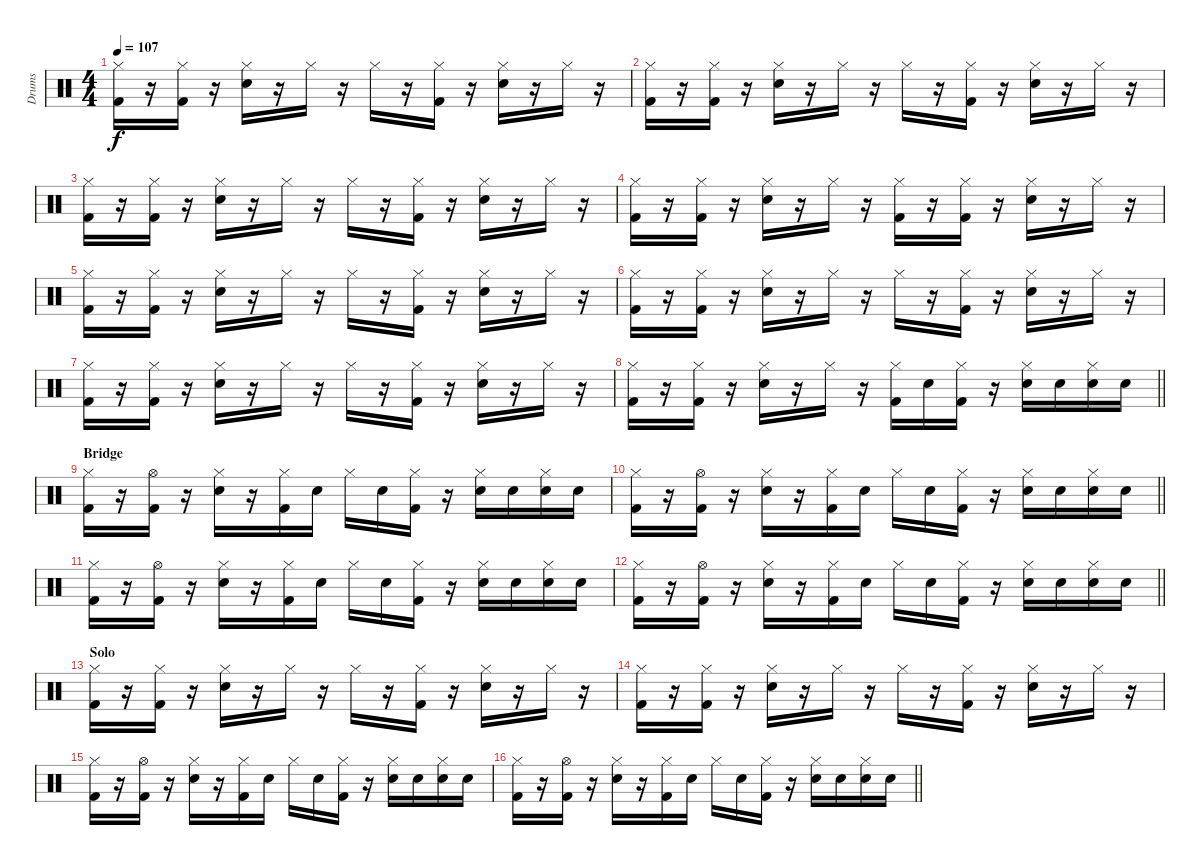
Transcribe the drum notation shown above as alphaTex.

\track ("Drums" "Drums") {instrument percussion}
\staff {score}
\articulation defaults
\ts (4 4)
\tempo 107
\clef neutral
\ks c
("Hi-Hat (closed)" "Kick (hit) 2").16{dy f} r.16 ("Hi-Hat (closed)" "Kick (hit) 2").16 r.16 ("Hi-Hat (closed)" "Electric Snare (hit)").16 r.16 "Hi-Hat (closed)".16 r.16 "Hi-Hat (closed)".16 r.16 ("Hi-Hat (closed)" "Kick (hit) 2").16 r.16 ("Hi-Hat (closed)" "Electric Snare (hit)").16 r.16 "Hi-Hat (closed)".16 r.16 |
("Hi-Hat (closed)" "Kick (hit) 2").16 r.16 ("Hi-Hat (closed)" "Kick (hit) 2").16 r.16 ("Hi-Hat (closed)" "Electric Snare (hit)").16 r.16 "Hi-Hat (closed)".16 r.16 "Hi-Hat (closed)".16 r.16 ("Hi-Hat (closed)" "Kick (hit) 2").16 r.16 ("Hi-Hat (closed)" "Electric Snare (hit)").16 r.16 "Hi-Hat (closed)".16 r.16 |
("Hi-Hat (closed)" "Kick (hit) 2").16 r.16 ("Hi-Hat (closed)" "Kick (hit) 2").16 r.16 ("Hi-Hat (closed)" "Electric Snare (hit)").16 r.16 "Hi-Hat (closed)".16 r.16 "Hi-Hat (closed)".16 r.16 ("Hi-Hat (closed)" "Kick (hit) 2").16 r.16 ("Hi-Hat (closed)" "Electric Snare (hit)").16 r.16 "Hi-Hat (closed)".16 r.16 |
("Hi-Hat (closed)" "Kick (hit) 2").16 r.16 ("Hi-Hat (closed)" "Kick (hit) 2").16 r.16 ("Hi-Hat (closed)" "Electric Snare (hit)").16 r.16 "Hi-Hat (closed)".16 r.16 ("Hi-Hat (closed)" "Kick (hit) 2").16 r.16 ("Hi-Hat (closed)" "Kick (hit) 2").16 r.16 ("Hi-Hat (closed)" "Electric Snare (hit)").16 r.16 "Hi-Hat (closed)".16 r.16 |
("Hi-Hat (closed)" "Kick (hit) 2").16 r.16 ("Hi-Hat (closed)" "Kick (hit) 2").16 r.16 ("Hi-Hat (closed)" "Electric Snare (hit)").16 r.16 "Hi-Hat (closed)".16 r.16 "Hi-Hat (closed)".16 r.16 ("Hi-Hat (closed)" "Kick (hit) 2").16 r.16 ("Hi-Hat (closed)" "Electric Snare (hit)").16 r.16 "Hi-Hat (closed)".16 r.16 |
("Hi-Hat (closed)" "Kick (hit) 2").16 r.16 ("Hi-Hat (closed)" "Kick (hit) 2").16 r.16 ("Hi-Hat (closed)" "Electric Snare (hit)").16 r.16 "Hi-Hat (closed)".16 r.16 "Hi-Hat (closed)".16 r.16 ("Hi-Hat (closed)" "Kick (hit) 2").16 r.16 ("Hi-Hat (closed)" "Electric Snare (hit)").16 r.16 "Hi-Hat (closed)".16 r.16 |
("Hi-Hat (closed)" "Kick (hit) 2").16 r.16 ("Hi-Hat (closed)" "Kick (hit) 2").16 r.16 ("Hi-Hat (closed)" "Electric Snare (hit)").16 r.16 "Hi-Hat (closed)".16 r.16 "Hi-Hat (closed)".16 r.16 ("Hi-Hat (closed)" "Kick (hit) 2").16 r.16 ("Hi-Hat (closed)" "Electric Snare (hit)").16 r.16 "Hi-Hat (closed)".16 r.16 |
\barLineRight lightlight
("Hi-Hat (closed)" "Kick (hit) 2").16 r.16 ("Hi-Hat (closed)" "Kick (hit) 2").16 r.16 ("Hi-Hat (closed)" "Electric Snare (hit)").16 r.16 "Hi-Hat (closed)".16 r.16 ("Hi-Hat (closed)" "Kick (hit) 2").16 "Electric Snare (hit)".16 ("Hi-Hat (closed)" "Kick (hit) 2").16 r.16 ("Hi-Hat (closed)" "Electric Snare (hit)").16 "Electric Snare (hit)".16 ("Hi-Hat (closed)" "Electric Snare (hit)").16 "Electric Snare (hit)".16 |
\section ("" "Bridge")
("Hi-Hat (closed)" "Kick (hit) 2").16 r.16 ("Hi-Hat (open)" "Kick (hit) 2").16 r.16 ("Hi-Hat (closed)" "Electric Snare (hit)").16 r.16 ("Hi-Hat (closed)" "Kick (hit) 2").16 "Electric Snare (hit)".16 "Hi-Hat (closed)".16 "Electric Snare (hit)".16 ("Hi-Hat (closed)" "Kick (hit) 2").16 r.16 ("Hi-Hat (closed)" "Electric Snare (hit)").16 "Electric Snare (hit)".16 ("Hi-Hat (closed)" "Electric Snare (hit)").16 "Electric Snare (hit)".16 |
\barLineRight lightlight
("Hi-Hat (closed)" "Kick (hit) 2").16 r.16 ("Hi-Hat (open)" "Kick (hit) 2").16 r.16 ("Hi-Hat (closed)" "Electric Snare (hit)").16 r.16 ("Hi-Hat (closed)" "Kick (hit) 2").16 "Electric Snare (hit)".16 "Hi-Hat (closed)".16 "Electric Snare (hit)".16 ("Hi-Hat (closed)" "Kick (hit) 2").16 r.16 ("Hi-Hat (closed)" "Electric Snare (hit)").16 "Electric Snare (hit)".16 ("Hi-Hat (closed)" "Electric Snare (hit)").16 "Electric Snare (hit)".16 |
("Hi-Hat (closed)" "Kick (hit) 2").16 r.16 ("Hi-Hat (open)" "Kick (hit) 2").16 r.16 ("Hi-Hat (closed)" "Electric Snare (hit)").16 r.16 ("Hi-Hat (closed)" "Kick (hit) 2").16 "Electric Snare (hit)".16 "Hi-Hat (closed)".16 "Electric Snare (hit)".16 ("Hi-Hat (closed)" "Kick (hit) 2").16 r.16 ("Hi-Hat (closed)" "Electric Snare (hit)").16 "Electric Snare (hit)".16 ("Hi-Hat (closed)" "Electric Snare (hit)").16 "Electric Snare (hit)".16 |
\barLineRight lightlight
("Hi-Hat (closed)" "Kick (hit) 2").16 r.16 ("Hi-Hat (open)" "Kick (hit) 2").16 r.16 ("Hi-Hat (closed)" "Electric Snare (hit)").16 r.16 ("Hi-Hat (closed)" "Kick (hit) 2").16 "Electric Snare (hit)".16 "Hi-Hat (closed)".16 "Electric Snare (hit)".16 ("Hi-Hat (closed)" "Kick (hit) 2").16 r.16 ("Hi-Hat (closed)" "Electric Snare (hit)").16 "Electric Snare (hit)".16 ("Hi-Hat (closed)" "Electric Snare (hit)").16 "Electric Snare (hit)".16 |
\section ("" "Solo")
("Hi-Hat (closed)" "Kick (hit) 2").16 r.16 ("Hi-Hat (closed)" "Kick (hit) 2").16 r.16 ("Hi-Hat (closed)" "Electric Snare (hit)").16 r.16 "Hi-Hat (closed)".16 r.16 "Hi-Hat (closed)".16 r.16 ("Hi-Hat (closed)" "Kick (hit) 2").16 r.16 ("Hi-Hat (closed)" "Electric Snare (hit)").16 r.16 "Hi-Hat (closed)".16 r.16 |
("Hi-Hat (closed)" "Kick (hit) 2").16 r.16 ("Hi-Hat (closed)" "Kick (hit) 2").16 r.16 ("Hi-Hat (closed)" "Electric Snare (hit)").16 r.16 "Hi-Hat (closed)".16 r.16 "Hi-Hat (closed)".16 r.16 ("Hi-Hat (closed)" "Kick (hit) 2").16 r.16 ("Hi-Hat (closed)" "Electric Snare (hit)").16 r.16 "Hi-Hat (closed)".16 r.16 |
("Hi-Hat (closed)" "Kick (hit) 2").16 r.16 ("Hi-Hat (open)" "Kick (hit) 2").16 r.16 ("Hi-Hat (closed)" "Electric Snare (hit)").16 r.16 ("Hi-Hat (closed)" "Kick (hit) 2").16 "Electric Snare (hit)".16 "Hi-Hat (closed)".16 "Electric Snare (hit)".16 ("Hi-Hat (closed)" "Kick (hit) 2").16 r.16 ("Hi-Hat (closed)" "Electric Snare (hit)").16 "Electric Snare (hit)".16 ("Hi-Hat (closed)" "Electric Snare (hit)").16 "Electric Snare (hit)".16 |
\barLineRight lightlight
("Hi-Hat (closed)" "Kick (hit) 2").16 r.16 ("Hi-Hat (open)" "Kick (hit) 2").16 r.16 ("Hi-Hat (closed)" "Electric Snare (hit)").16 r.16 ("Hi-Hat (closed)" "Kick (hit) 2").16 "Electric Snare (hit)".16 "Hi-Hat (closed)".16 "Electric Snare (hit)".16 ("Hi-Hat (closed)" "Kick (hit) 2").16 r.16 ("Hi-Hat (closed)" "Electric Snare (hit)").16 "Electric Snare (hit)".16 ("Hi-Hat (closed)" "Electric Snare (hit)").16 "Electric Snare (hit)".16
